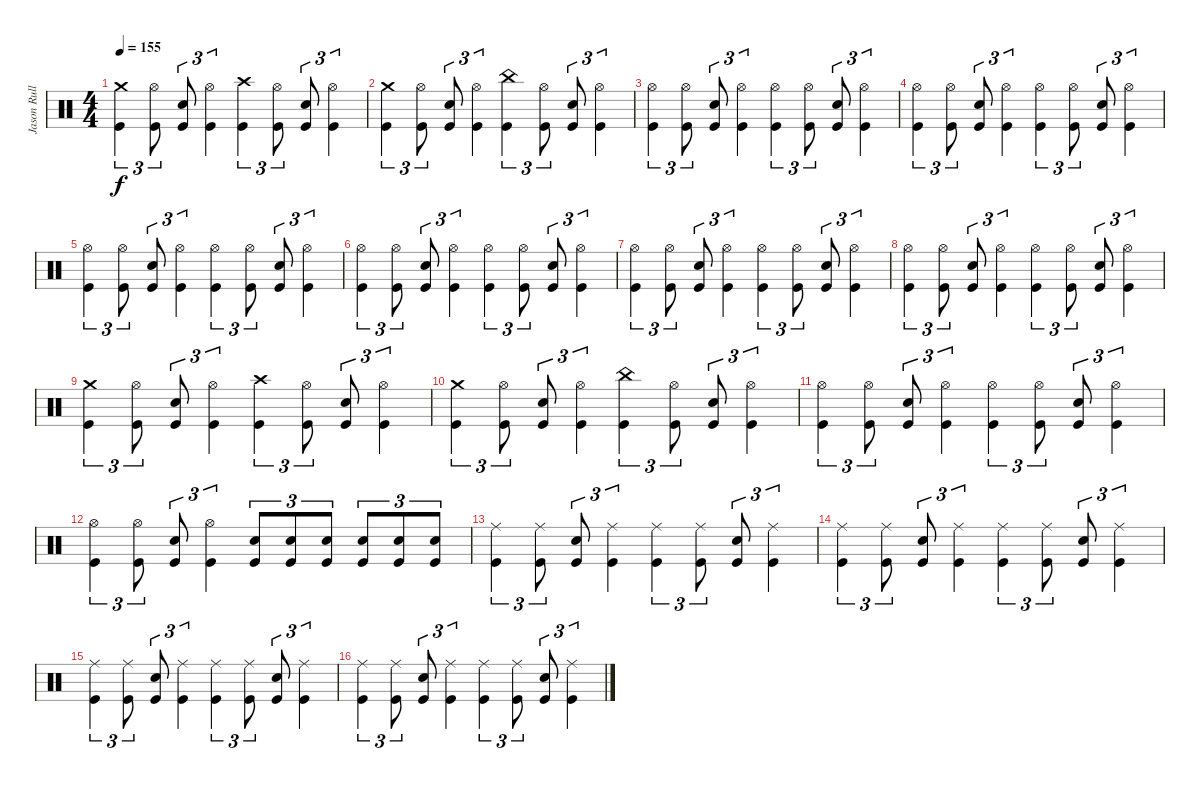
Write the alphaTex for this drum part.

\track ("Jason Rullo - BATTERIE" "Jason Rull") {instrument percussion}
\staff {score}
\articulation defaults
\ts (4 4)
\tempo 155
\clef neutral
\ks c
("Crash medium (hit)" "Kick (hit)").4{tu (3 2) dy f} ("Hi-Hat (open)" "Kick (hit)").8{tu (3 2)} ("Snare (hit) 2" "Kick (hit)").8{tu (3 2)} ("Hi-Hat (open)" "Kick (hit)").4{tu (3 2)} ("Crash high (hit)" "Kick (hit)").4{tu (3 2)} ("Hi-Hat (open)" "Kick (hit)").8{tu (3 2)} ("Snare (hit) 2" "Kick (hit)").8{tu (3 2)} ("Hi-Hat (open)" "Kick (hit)").4{tu (3 2)} |
("Crash medium (hit)" "Kick (hit)").4{tu (3 2)} ("Hi-Hat (open)" "Kick (hit)").8{tu (3 2)} ("Snare (hit) 2" "Kick (hit)").8{tu (3 2)} ("Hi-Hat (open)" "Kick (hit)").4{tu (3 2)} ("China (hit)" "Kick (hit)").4{tu (3 2)} ("Hi-Hat (open)" "Kick (hit)").8{tu (3 2)} ("Snare (hit) 2" "Kick (hit)").8{tu (3 2)} ("Hi-Hat (open)" "Kick (hit)").4{tu (3 2)} |
("Hi-Hat (open)" "Kick (hit)").4{tu (3 2)} ("Hi-Hat (open)" "Kick (hit)").8{tu (3 2)} ("Snare (hit) 2" "Kick (hit)").8{tu (3 2)} ("Hi-Hat (open)" "Kick (hit)").4{tu (3 2)} ("Hi-Hat (open)" "Kick (hit)").4{tu (3 2)} ("Hi-Hat (open)" "Kick (hit)").8{tu (3 2)} ("Snare (hit) 2" "Kick (hit)").8{tu (3 2)} ("Hi-Hat (open)" "Kick (hit)").4{tu (3 2)} |
("Hi-Hat (open)" "Kick (hit)").4{tu (3 2)} ("Hi-Hat (open)" "Kick (hit)").8{tu (3 2)} ("Snare (hit) 2" "Kick (hit)").8{tu (3 2)} ("Hi-Hat (open)" "Kick (hit)").4{tu (3 2)} ("Hi-Hat (open)" "Kick (hit)").4{tu (3 2)} ("Hi-Hat (open)" "Kick (hit)").8{tu (3 2)} ("Snare (hit) 2" "Kick (hit)").8{tu (3 2)} ("Hi-Hat (open)" "Kick (hit)").4{tu (3 2)} |
("Hi-Hat (open)" "Kick (hit)").4{tu (3 2)} ("Hi-Hat (open)" "Kick (hit)").8{tu (3 2)} ("Snare (hit) 2" "Kick (hit)").8{tu (3 2)} ("Hi-Hat (open)" "Kick (hit)").4{tu (3 2)} ("Hi-Hat (open)" "Kick (hit)").4{tu (3 2)} ("Hi-Hat (open)" "Kick (hit)").8{tu (3 2)} ("Snare (hit) 2" "Kick (hit)").8{tu (3 2)} ("Hi-Hat (open)" "Kick (hit)").4{tu (3 2)} |
("Hi-Hat (open)" "Kick (hit)").4{tu (3 2)} ("Hi-Hat (open)" "Kick (hit)").8{tu (3 2)} ("Snare (hit) 2" "Kick (hit)").8{tu (3 2)} ("Hi-Hat (open)" "Kick (hit)").4{tu (3 2)} ("Hi-Hat (open)" "Kick (hit)").4{tu (3 2)} ("Hi-Hat (open)" "Kick (hit)").8{tu (3 2)} ("Snare (hit) 2" "Kick (hit)").8{tu (3 2)} ("Hi-Hat (open)" "Kick (hit)").4{tu (3 2)} |
("Hi-Hat (open)" "Kick (hit)").4{tu (3 2)} ("Hi-Hat (open)" "Kick (hit)").8{tu (3 2)} ("Snare (hit) 2" "Kick (hit)").8{tu (3 2)} ("Hi-Hat (open)" "Kick (hit)").4{tu (3 2)} ("Hi-Hat (open)" "Kick (hit)").4{tu (3 2)} ("Hi-Hat (open)" "Kick (hit)").8{tu (3 2)} ("Snare (hit) 2" "Kick (hit)").8{tu (3 2)} ("Hi-Hat (open)" "Kick (hit)").4{tu (3 2)} |
("Hi-Hat (open)" "Kick (hit)").4{tu (3 2)} ("Hi-Hat (open)" "Kick (hit)").8{tu (3 2)} ("Snare (hit) 2" "Kick (hit)").8{tu (3 2)} ("Hi-Hat (open)" "Kick (hit)").4{tu (3 2)} ("Hi-Hat (open)" "Kick (hit)").4{tu (3 2)} ("Hi-Hat (open)" "Kick (hit)").8{tu (3 2)} ("Snare (hit) 2" "Kick (hit)").8{tu (3 2)} ("Hi-Hat (open)" "Kick (hit)").4{tu (3 2)} |
("Crash medium (hit)" "Kick (hit)").4{tu (3 2)} ("Hi-Hat (open)" "Kick (hit)").8{tu (3 2)} ("Snare (hit) 2" "Kick (hit)").8{tu (3 2)} ("Hi-Hat (open)" "Kick (hit)").4{tu (3 2)} ("Crash high (hit)" "Kick (hit)").4{tu (3 2)} ("Hi-Hat (open)" "Kick (hit)").8{tu (3 2)} ("Snare (hit) 2" "Kick (hit)").8{tu (3 2)} ("Hi-Hat (open)" "Kick (hit)").4{tu (3 2)} |
("Crash medium (hit)" "Kick (hit)").4{tu (3 2)} ("Hi-Hat (open)" "Kick (hit)").8{tu (3 2)} ("Snare (hit) 2" "Kick (hit)").8{tu (3 2)} ("Hi-Hat (open)" "Kick (hit)").4{tu (3 2)} ("China (hit)" "Kick (hit)").4{tu (3 2)} ("Hi-Hat (open)" "Kick (hit)").8{tu (3 2)} ("Snare (hit) 2" "Kick (hit)").8{tu (3 2)} ("Hi-Hat (open)" "Kick (hit)").4{tu (3 2)} |
("Hi-Hat (open)" "Kick (hit)").4{tu (3 2)} ("Hi-Hat (open)" "Kick (hit)").8{tu (3 2)} ("Snare (hit) 2" "Kick (hit)").8{tu (3 2)} ("Hi-Hat (open)" "Kick (hit)").4{tu (3 2)} ("Hi-Hat (open)" "Kick (hit)").4{tu (3 2)} ("Hi-Hat (open)" "Kick (hit)").8{tu (3 2)} ("Snare (hit) 2" "Kick (hit)").8{tu (3 2)} ("Hi-Hat (open)" "Kick (hit)").4{tu (3 2)} |
("Hi-Hat (open)" "Kick (hit)").4{tu (3 2)} ("Hi-Hat (open)" "Kick (hit)").8{tu (3 2)} ("Snare (hit) 2" "Kick (hit)").8{tu (3 2)} ("Hi-Hat (open)" "Kick (hit)").4{tu (3 2)} ("Snare (hit) 2" "Kick (hit)").8{tu (3 2)} ("Snare (hit) 2" "Kick (hit)").8{tu (3 2)} ("Snare (hit) 2" "Kick (hit)").8{tu (3 2)} ("Snare (hit) 2" "Kick (hit)").8{tu (3 2)} ("Snare (hit) 2" "Kick (hit)").8{tu (3 2)} ("Snare (hit) 2" "Kick (hit)").8{tu (3 2)} |
("Ride (middle)" "Kick (hit)").4{tu (3 2)} ("Ride (middle)" "Kick (hit)").8{tu (3 2)} ("Snare (hit) 2" "Kick (hit)").8{tu (3 2)} ("Ride (middle)" "Kick (hit)").4{tu (3 2)} ("Ride (middle)" "Kick (hit)").4{tu (3 2)} ("Ride (middle)" "Kick (hit)").8{tu (3 2)} ("Snare (hit) 2" "Kick (hit)").8{tu (3 2)} ("Ride (middle)" "Kick (hit)").4{tu (3 2)} |
("Ride (middle)" "Kick (hit)").4{tu (3 2)} ("Ride (middle)" "Kick (hit)").8{tu (3 2)} ("Snare (hit) 2" "Kick (hit)").8{tu (3 2)} ("Ride (middle)" "Kick (hit)").4{tu (3 2)} ("Ride (middle)" "Kick (hit)").4{tu (3 2)} ("Ride (middle)" "Kick (hit)").8{tu (3 2)} ("Snare (hit) 2" "Kick (hit)").8{tu (3 2)} ("Ride (middle)" "Kick (hit)").4{tu (3 2)} |
("Ride (middle)" "Kick (hit)").4{tu (3 2)} ("Ride (middle)" "Kick (hit)").8{tu (3 2)} ("Snare (hit) 2" "Kick (hit)").8{tu (3 2)} ("Ride (middle)" "Kick (hit)").4{tu (3 2)} ("Ride (middle)" "Kick (hit)").4{tu (3 2)} ("Ride (middle)" "Kick (hit)").8{tu (3 2)} ("Snare (hit) 2" "Kick (hit)").8{tu (3 2)} ("Ride (middle)" "Kick (hit)").4{tu (3 2)} |
("Ride (middle)" "Kick (hit)").4{tu (3 2)} ("Ride (middle)" "Kick (hit)").8{tu (3 2)} ("Snare (hit) 2" "Kick (hit)").8{tu (3 2)} ("Ride (middle)" "Kick (hit)").4{tu (3 2)} ("Ride (middle)" "Kick (hit)").4{tu (3 2)} ("Ride (middle)" "Kick (hit)").8{tu (3 2)} ("Snare (hit) 2" "Kick (hit)").8{tu (3 2)} ("Ride (middle)" "Kick (hit)").4{tu (3 2)}
